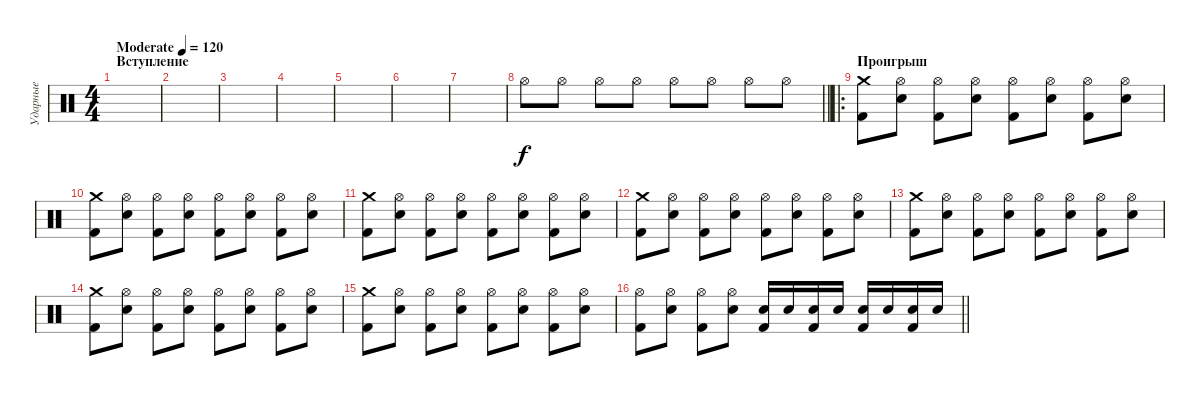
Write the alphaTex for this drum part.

\track ("Ударные" "Ударные") {instrument percussion}
\staff {score}
\articulation defaults
\ts (4 4)
\section ("" "Вступление")
\tempo (120 "Moderate")
\clef neutral
\ks c
|
|
|
|
|
|
|
\barLineRight lightlight "Hi-Hat (open)".8 "Hi-Hat (open)".8 "Hi-Hat (open)".8 "Hi-Hat (open)".8 "Hi-Hat (open)".8 "Hi-Hat (open)".8 "Hi-Hat (open)".8 "Hi-Hat (open)".8
|
\ro
\section ("" "Проигрыш")
("Crash medium (hit)" "Kick (hit) 2").8 ("Hi-Hat (open)" "Snare (hit) 2").8 ("Hi-Hat (open)" "Kick (hit) 2").8 ("Hi-Hat (open)" "Snare (hit) 2").8 ("Hi-Hat (open)" "Kick (hit) 2").8 ("Hi-Hat (open)" "Snare (hit) 2").8 ("Hi-Hat (open)" "Kick (hit) 2").8 ("Hi-Hat (open)" "Snare (hit) 2").8 |
("Crash medium (hit)" "Kick (hit) 2").8 ("Hi-Hat (open)" "Snare (hit) 2").8 ("Hi-Hat (open)" "Kick (hit) 2").8 ("Hi-Hat (open)" "Snare (hit) 2").8 ("Hi-Hat (open)" "Kick (hit) 2").8 ("Hi-Hat (open)" "Snare (hit) 2").8 ("Hi-Hat (open)" "Kick (hit) 2").8 ("Hi-Hat (open)" "Snare (hit) 2").8 |
("Crash medium (hit)" "Kick (hit) 2").8 ("Hi-Hat (open)" "Snare (hit) 2").8 ("Hi-Hat (open)" "Kick (hit) 2").8 ("Hi-Hat (open)" "Snare (hit) 2").8 ("Hi-Hat (open)" "Kick (hit) 2").8 ("Hi-Hat (open)" "Snare (hit) 2").8 ("Hi-Hat (open)" "Kick (hit) 2").8 ("Hi-Hat (open)" "Snare (hit) 2").8 |
("Crash medium (hit)" "Kick (hit) 2").8 ("Hi-Hat (open)" "Snare (hit) 2").8 ("Hi-Hat (open)" "Kick (hit) 2").8 ("Hi-Hat (open)" "Snare (hit) 2").8 ("Hi-Hat (open)" "Kick (hit) 2").8 ("Hi-Hat (open)" "Snare (hit) 2").8 ("Hi-Hat (open)" "Kick (hit) 2").8 ("Hi-Hat (open)" "Snare (hit) 2").8 |
("Crash medium (hit)" "Kick (hit) 2").8 ("Hi-Hat (open)" "Snare (hit) 2").8 ("Hi-Hat (open)" "Kick (hit) 2").8 ("Hi-Hat (open)" "Snare (hit) 2").8 ("Hi-Hat (open)" "Kick (hit) 2").8 ("Hi-Hat (open)" "Snare (hit) 2").8 ("Hi-Hat (open)" "Kick (hit) 2").8 ("Hi-Hat (open)" "Snare (hit) 2").8 |
("Crash medium (hit)" "Kick (hit) 2").8 ("Hi-Hat (open)" "Snare (hit) 2").8 ("Hi-Hat (open)" "Kick (hit) 2").8 ("Hi-Hat (open)" "Snare (hit) 2").8 ("Hi-Hat (open)" "Kick (hit) 2").8 ("Hi-Hat (open)" "Snare (hit) 2").8 ("Hi-Hat (open)" "Kick (hit) 2").8 ("Hi-Hat (open)" "Snare (hit) 2").8 |
("Crash medium (hit)" "Kick (hit) 2").8 ("Hi-Hat (open)" "Snare (hit) 2").8 ("Hi-Hat (open)" "Kick (hit) 2").8 ("Hi-Hat (open)" "Snare (hit) 2").8 ("Hi-Hat (open)" "Kick (hit) 2").8 ("Hi-Hat (open)" "Snare (hit) 2").8 ("Hi-Hat (open)" "Kick (hit) 2").8 ("Hi-Hat (open)" "Snare (hit) 2").8 |
\barLineRight lightlight
("Hi-Hat (open)" "Kick (hit) 2").8 ("Hi-Hat (open)" "Snare (hit) 2").8 ("Hi-Hat (open)" "Kick (hit) 2").8 ("Hi-Hat (open)" "Snare (hit) 2").8 ("Snare (hit) 2" "Kick (hit) 2").16 "Snare (hit) 2".16 ("Snare (hit) 2" "Kick (hit) 2").16 "Snare (hit) 2".16 ("Snare (hit) 2" "Kick (hit) 2").16 "Snare (hit) 2".16 ("Snare (hit) 2" "Kick (hit) 2").16 "Snare (hit) 2".16
